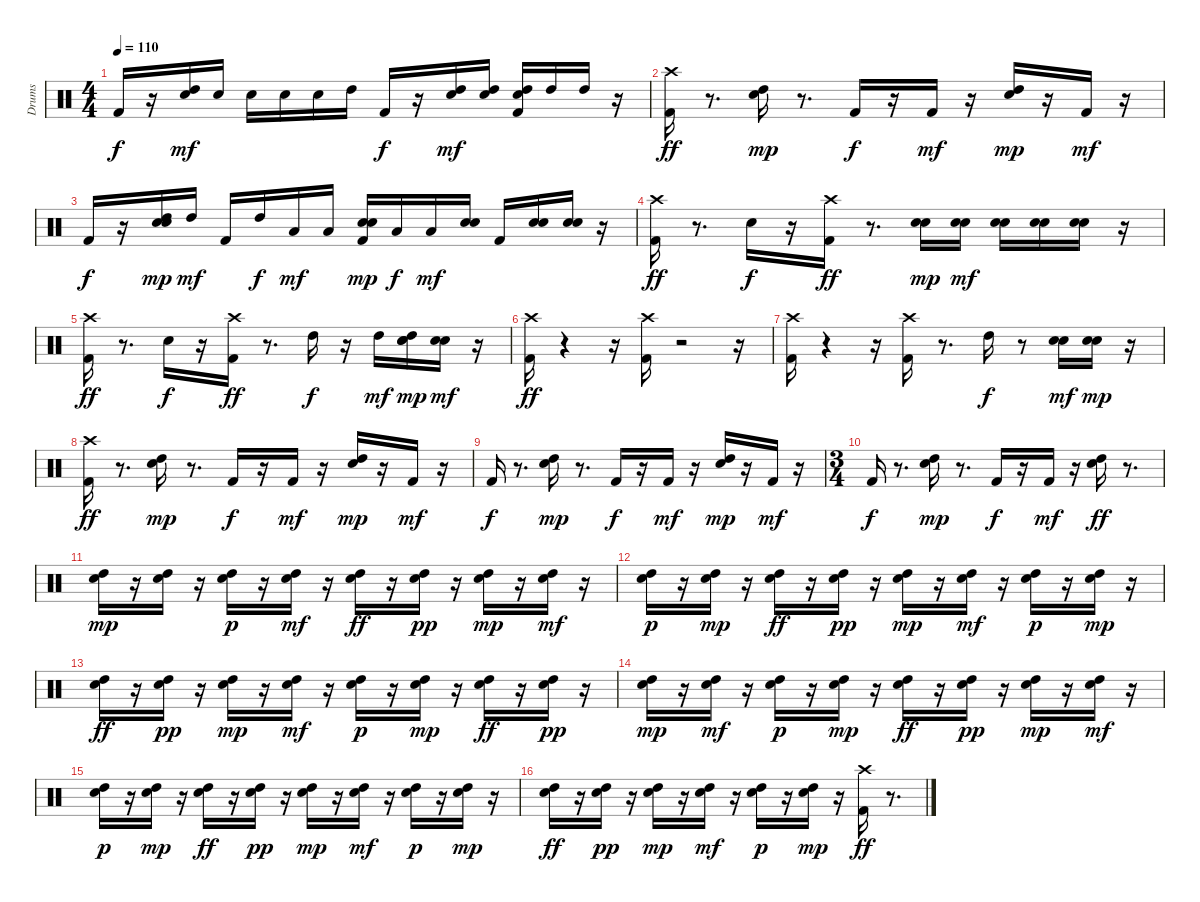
\track ("Drums" "Drums") {instrument percussion}
\staff {score}
\articulation defaults
\ts (4 4)
\tempo 110
\clef neutral
\ks c "Kick (hit) 2".16{dy f}
r.16 ("High Tom (hit)" "Snare (hit) 2").16{dy mf} "Snare (hit) 2".16 "Snare (hit) 2".16 "Snare (hit) 2".16 "Snare (hit) 2".16 "High Tom (hit)".16 "Kick (hit) 2".16{dy f} r.16 ("High Tom (hit)" "Snare (hit) 2").16{dy mf} ("High Tom (hit)" "Snare (hit) 2").16 ("High Tom (hit)" "Snare (hit) 2" "Kick (hit) 2").16 "High Tom (hit)".16 "High Tom (hit)".16 r.16 |
("Crash high (hit)" "Kick (hit) 2").16{dy ff} r.8{d} ("High Tom (hit)" "Snare (hit) 2").16{dy mp} r.8{d} "Kick (hit) 2".16{dy f} r.16 "Kick (hit) 2".16{dy mf} r.16 ("High Tom (hit)" "Snare (hit) 2").16{dy mp} r.16 "Kick (hit) 2".16{dy mf} r.16 |
"Kick (hit) 2".16{dy f} r.16 ("Electric Snare (hit)" "Snare (hit) 2" "High Tom (hit)").16{dy mp} "High Tom (hit)".16{dy mf} "Kick (hit) 2".16 "High Tom (hit)".16{dy f} "Low Tom (hit)".16{dy mf} "Low Tom (hit)".16 ("Snare (hit) 2" "Electric Snare (hit)" "Kick (hit) 2").16{dy mp} "Low Tom (hit)".16{dy f} "Low Tom (hit)".16{dy mf} ("Electric Snare (hit)" "Snare (hit) 2").16 "Kick (hit) 2".16 ("Electric Snare (hit)" "Snare (hit) 2").16 ("Electric Snare (hit)" "Snare (hit) 2").16 r.16 |
("Crash high (hit)" "Kick (hit) 2").16{dy ff} r.8{d} "Snare (hit) 2".16{dy f} r.16 ("Crash high (hit)" "Kick (hit) 2").16{dy ff} r.8{d} ("Electric Snare (hit)" "Snare (hit) 2").16{dy mp} ("Electric Snare (hit)" "Snare (hit) 2").16{dy mf} ("Electric Snare (hit)" "Snare (hit) 2").16 ("Electric Snare (hit)" "Snare (hit) 2").16 ("Electric Snare (hit)" "Snare (hit) 2").16 r.16 |
("Crash high (hit)" "Kick (hit) 2").16{dy ff} r.8{d} "Snare (hit) 2".16{dy f} r.16 ("Crash high (hit)" "Kick (hit) 2").16{dy ff} r.8{d} "High Tom (hit)".16{dy f} r.16 "High Tom (hit)".16{dy mf} ("High Tom (hit)" "Snare (hit) 2" "Electric Snare (hit)").16{dy mp} ("Snare (hit) 2" "Electric Snare (hit)").16{dy mf} r.16 |
("Crash high (hit)" "Kick (hit) 2").16{dy ff} r.4 r.16 ("Crash high (hit)" "Kick (hit) 2").16 r.2 r.16 |
("Crash high (hit)" "Kick (hit) 2").16 r.4 r.16 ("Crash high (hit)" "Kick (hit) 2").16 r.8{d} "High Tom (hit)".16{dy f} r.8 ("Snare (hit) 2" "Electric Snare (hit)").16{dy mf} ("Snare (hit) 2" "Electric Snare (hit)").16{dy mp} r.16 |
("Crash high (hit)" "Kick (hit) 2").16{dy ff} r.8{d} ("High Tom (hit)" "Snare (hit) 2").16{dy mp} r.8{d} "Kick (hit) 2".16{dy f} r.16 "Kick (hit) 2".16{dy mf} r.16 ("High Tom (hit)" "Snare (hit) 2").16{dy mp} r.16 "Kick (hit) 2".16{dy mf} r.16 |
"Kick (hit) 2".16{dy f} r.8{d} ("High Tom (hit)" "Snare (hit) 2").16{dy mp} r.8{d} "Kick (hit) 2".16{dy f} r.16 "Kick (hit) 2".16{dy mf} r.16 ("High Tom (hit)" "Snare (hit) 2").16{dy mp} r.16 "Kick (hit) 2".16{dy mf} r.16 |
\ts (3 4)
"Kick (hit) 2".16{dy f} r.8{d} ("High Tom (hit)" "Snare (hit) 2").16{dy mp} r.8{d} "Kick (hit) 2".16{dy f} r.16 "Kick (hit) 2".16{dy mf} r.16 ("High Tom (hit)" "Snare (hit) 2").16{dy ff} r.8{d} |
("High Tom (hit)" "Snare (hit) 2").16{dy mp} r.16 ("High Tom (hit)" "Snare (hit) 2").16 r.16 ("High Tom (hit)" "Snare (hit) 2").16{dy p} r.16 ("High Tom (hit)" "Snare (hit) 2").16{dy mf} r.16 ("High Tom (hit)" "Snare (hit) 2").16{dy ff} r.16 ("Snare (hit) 2" "High Tom (hit)").16{dy pp} r.16 ("High Tom (hit)" "Snare (hit) 2").16{dy mp} r.16 ("High Tom (hit)" "Snare (hit) 2").16{dy mf} r.16 |
("High Tom (hit)" "Snare (hit) 2").16{dy p} r.16 ("High Tom (hit)" "Snare (hit) 2").16{dy mp} r.16 ("High Tom (hit)" "Snare (hit) 2").16{dy ff} r.16 ("Snare (hit) 2" "High Tom (hit)").16{dy pp} r.16 ("High Tom (hit)" "Snare (hit) 2").16{dy mp} r.16 ("High Tom (hit)" "Snare (hit) 2").16{dy mf} r.16 ("High Tom (hit)" "Snare (hit) 2").16{dy p} r.16 ("High Tom (hit)" "Snare (hit) 2").16{dy mp} r.16 |
("High Tom (hit)" "Snare (hit) 2").16{dy ff} r.16 ("Snare (hit) 2" "High Tom (hit)").16{dy pp} r.16 ("High Tom (hit)" "Snare (hit) 2").16{dy mp} r.16 ("High Tom (hit)" "Snare (hit) 2").16{dy mf} r.16 ("High Tom (hit)" "Snare (hit) 2").16{dy p} r.16 ("High Tom (hit)" "Snare (hit) 2").16{dy mp} r.16 ("High Tom (hit)" "Snare (hit) 2").16{dy ff} r.16 ("Snare (hit) 2" "High Tom (hit)").16{dy pp} r.16 |
("High Tom (hit)" "Snare (hit) 2").16{dy mp} r.16 ("High Tom (hit)" "Snare (hit) 2").16{dy mf} r.16 ("High Tom (hit)" "Snare (hit) 2").16{dy p} r.16 ("High Tom (hit)" "Snare (hit) 2").16{dy mp} r.16 ("High Tom (hit)" "Snare (hit) 2").16{dy ff} r.16 ("Snare (hit) 2" "High Tom (hit)").16{dy pp} r.16 ("High Tom (hit)" "Snare (hit) 2").16{dy mp} r.16 ("High Tom (hit)" "Snare (hit) 2").16{dy mf} r.16 |
("High Tom (hit)" "Snare (hit) 2").16{dy p} r.16 ("High Tom (hit)" "Snare (hit) 2").16{dy mp} r.16 ("High Tom (hit)" "Snare (hit) 2").16{dy ff} r.16 ("Snare (hit) 2" "High Tom (hit)").16{dy pp} r.16 ("High Tom (hit)" "Snare (hit) 2").16{dy mp} r.16 ("High Tom (hit)" "Snare (hit) 2").16{dy mf} r.16 ("High Tom (hit)" "Snare (hit) 2").16{dy p} r.16 ("High Tom (hit)" "Snare (hit) 2").16{dy mp} r.16 |
("High Tom (hit)" "Snare (hit) 2").16{dy ff} r.16 ("Snare (hit) 2" "High Tom (hit)").16{dy pp} r.16 ("High Tom (hit)" "Snare (hit) 2").16{dy mp} r.16 ("High Tom (hit)" "Snare (hit) 2").16{dy mf} r.16 ("High Tom (hit)" "Snare (hit) 2").16{dy p} r.16 ("High Tom (hit)" "Snare (hit) 2").16{dy mp} r.16 ("Crash high (hit)" "Kick (hit) 2").16{dy ff} r.8{d}
